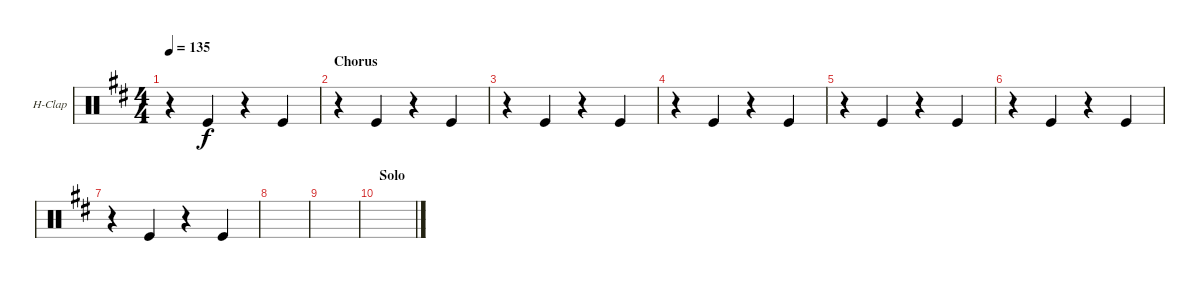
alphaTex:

\defaultSystemsLayout 4
\bracketExtendMode groupsimilarinstruments
\firstSystemTrackNameOrientation horizontal
\otherSystemsTrackNameOrientation horizontal
\track ("Hand Clap" "H-Clap") {instrument percussion}
\staff {score}
\articulation defaults
\ts (4 4)
\tempo 135
\clef neutral
\ks bminor
r.4{dy f} "Kick (hit)".4 r.4 "Kick (hit)".4 |
\section ("" "Chorus")
r.4 "Kick (hit)".4 r.4 "Kick (hit)".4 |
r.4 "Kick (hit)".4 r.4 "Kick (hit)".4 |
r.4 "Kick (hit)".4 r.4 "Kick (hit)".4 |
r.4 "Kick (hit)".4 r.4 "Kick (hit)".4 |
r.4 "Kick (hit)".4 r.4 "Kick (hit)".4 |
r.4 "Kick (hit)".4 r.4 "Kick (hit)".4 |
|
|
\section ("" "Solo")
